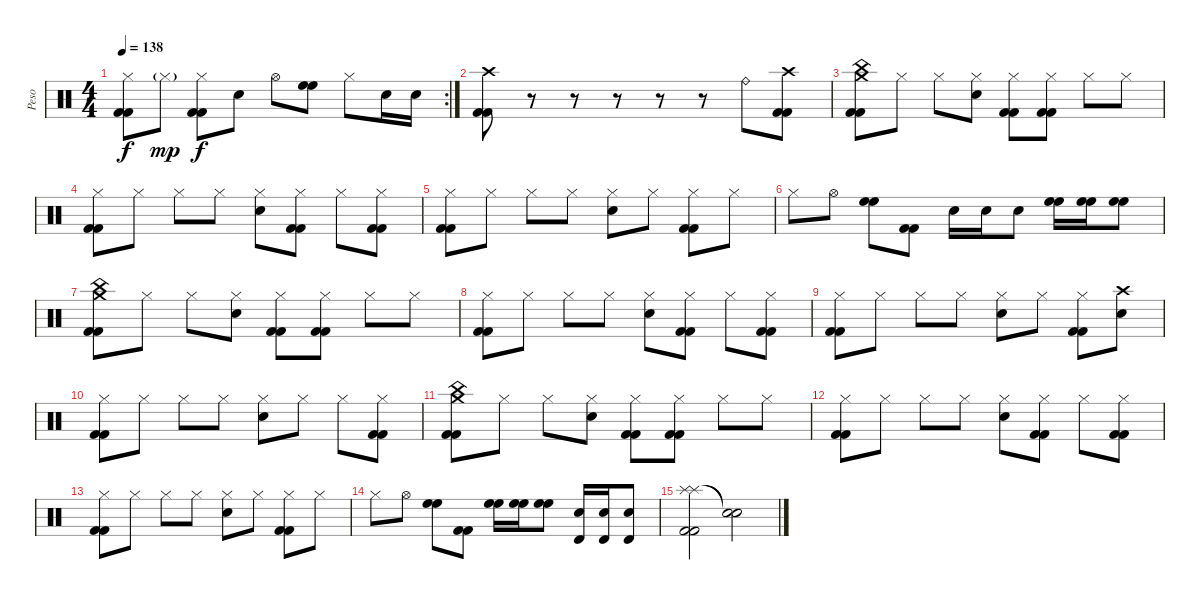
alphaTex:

\track ("Peso" "Peso") {instrument percussion}
\staff {score}
\articulation defaults
\rc 2
\ts (4 4)
\tempo 138
\clef neutral
\ks c
("Hi-Hat (closed)" "Kick (hit) 2" "Kick (hit) 2").8{dy f} "Hi-Hat (closed)"{g}.8{dy mp} ("Hi-Hat (closed)" "Kick (hit) 2" "Kick (hit) 2").8{dy f} "Electric Snare (hit)".8 "Hi-Hat (open)".8 ("High Floor Tom (hit)" "High Floor Tom (hit)").8{volume 16} "Hi-Hat (closed)".8{volume 15} "Electric Snare (hit)".16 "Electric Snare (hit)".16 |
("Crash high (hit)" "Kick (hit) 2" "Kick (hit) 2").8 r.8 r.8 r.8 r.8 r.8 "Ride (bell)".8 ("Crash high (hit)" "Kick (hit) 2" "Kick (hit) 2").8 |
("China (hit)" "Crash medium (hit)" "Kick (hit) 2" "Kick (hit) 2").8 "Hi-Hat (closed)".8 "Hi-Hat (closed)".8 ("Hi-Hat (closed)" "Electric Snare (hit)").8 ("Hi-Hat (closed)" "Kick (hit) 2" "Kick (hit) 2").8 ("Hi-Hat (closed)" "Kick (hit) 2" "Kick (hit) 2").8 "Hi-Hat (closed)".8 "Hi-Hat (closed)".8 |
("Hi-Hat (closed)" "Kick (hit) 2" "Kick (hit) 2").8 "Hi-Hat (closed)".8 "Hi-Hat (closed)".8 "Hi-Hat (closed)".8 ("Hi-Hat (closed)" "Electric Snare (hit)").8 ("Hi-Hat (closed)" "Kick (hit) 2" "Kick (hit) 2").8 "Hi-Hat (closed)".8 ("Hi-Hat (closed)" "Kick (hit) 2" "Kick (hit) 2").8 |
("Hi-Hat (closed)" "Kick (hit) 2" "Kick (hit) 2").8 "Hi-Hat (closed)".8 "Hi-Hat (closed)".8 "Hi-Hat (closed)".8 ("Hi-Hat (closed)" "Electric Snare (hit)").8 "Hi-Hat (closed)".8 ("Hi-Hat (closed)" "Kick (hit) 2" "Kick (hit) 2").8 "Hi-Hat (closed)".8 |
"Hi-Hat (closed)".8 "Hi-Hat (open)".8 ("High Floor Tom (hit)" "High Floor Tom (hit)").8{volume 16} ("Kick (hit) 2" "Kick (hit) 2").8 "Electric Snare (hit)".16 "Electric Snare (hit)".16 "Electric Snare (hit)".8 ("High Floor Tom (hit)" "High Floor Tom (hit)").16{volume 16} ("High Floor Tom (hit)" "High Floor Tom (hit)").16 ("High Floor Tom (hit)" "High Floor Tom (hit)").8 |
("China (hit)" "Crash medium (hit)" "Kick (hit) 2" "Kick (hit) 2").8{volume 15} "Hi-Hat (closed)".8 "Hi-Hat (closed)".8 ("Hi-Hat (closed)" "Electric Snare (hit)").8 ("Hi-Hat (closed)" "Kick (hit) 2" "Kick (hit) 2").8 ("Hi-Hat (closed)" "Kick (hit) 2" "Kick (hit) 2").8 "Hi-Hat (closed)".8 "Hi-Hat (closed)".8 |
("Hi-Hat (closed)" "Kick (hit) 2" "Kick (hit) 2").8 "Hi-Hat (closed)".8 "Hi-Hat (closed)".8 "Hi-Hat (closed)".8 ("Hi-Hat (closed)" "Electric Snare (hit)").8 ("Hi-Hat (closed)" "Kick (hit) 2" "Kick (hit) 2").8 "Hi-Hat (closed)".8 ("Hi-Hat (closed)" "Kick (hit) 2" "Kick (hit) 2").8 |
("Hi-Hat (closed)" "Kick (hit) 2" "Kick (hit) 2").8 "Hi-Hat (closed)".8 "Hi-Hat (closed)".8 "Hi-Hat (closed)".8 ("Hi-Hat (closed)" "Electric Snare (hit)").8 "Hi-Hat (closed)".8 ("Hi-Hat (closed)" "Kick (hit) 2" "Kick (hit) 2").8 ("Crash high (hit)" "Electric Snare (hit)").8 |
("Hi-Hat (closed)" "Kick (hit) 2" "Kick (hit) 2").8 "Hi-Hat (closed)".8 "Hi-Hat (closed)".8 "Hi-Hat (closed)".8 ("Hi-Hat (closed)" "Electric Snare (hit)").8 "Hi-Hat (closed)".8 "Hi-Hat (closed)".8 ("Hi-Hat (closed)" "Kick (hit) 2" "Kick (hit) 2").8 |
("China (hit)" "Crash medium (hit)" "Kick (hit) 2" "Kick (hit) 2").8 "Hi-Hat (closed)".8 "Hi-Hat (closed)".8 ("Hi-Hat (closed)" "Electric Snare (hit)").8 ("Hi-Hat (closed)" "Kick (hit) 2" "Kick (hit) 2").8 ("Hi-Hat (closed)" "Kick (hit) 2" "Kick (hit) 2").8 "Hi-Hat (closed)".8 "Hi-Hat (closed)".8 |
("Hi-Hat (closed)" "Kick (hit) 2" "Kick (hit) 2").8 "Hi-Hat (closed)".8 "Hi-Hat (closed)".8 "Hi-Hat (closed)".8 ("Hi-Hat (closed)" "Electric Snare (hit)").8 ("Hi-Hat (closed)" "Kick (hit) 2" "Kick (hit) 2").8 "Hi-Hat (closed)".8 ("Hi-Hat (closed)" "Kick (hit) 2" "Kick (hit) 2").8 |
("Hi-Hat (closed)" "Kick (hit) 2" "Kick (hit) 2").8 "Hi-Hat (closed)".8 "Hi-Hat (closed)".8 "Hi-Hat (closed)".8 ("Hi-Hat (closed)" "Electric Snare (hit)").8 "Hi-Hat (closed)".8 ("Hi-Hat (closed)" "Kick (hit) 2" "Kick (hit) 2").8 "Hi-Hat (closed)".8 |
"Hi-Hat (closed)".8 "Hi-Hat (open)".8 ("High Floor Tom (hit)" "High Floor Tom (hit)").8{volume 16} ("Kick (hit) 2" "Kick (hit) 2").8 ("High Floor Tom (hit)" "High Floor Tom (hit)").16{volume 16} ("High Floor Tom (hit)" "High Floor Tom (hit)").16 ("High Floor Tom (hit)" "High Floor Tom (hit)").8 ("Timbale high (hit)" "Electric Snare (hit)").16{volume 14} ("Timbale high (hit)" "Electric Snare (hit)").16 ("Timbale high (hit)" "Electric Snare (hit)").8 |
("Splash (hit)" "Splash (hit)" "Kick (hit) 2" "Kick (hit) 2").2 ("Snare (hit)"{t} "Snare (hit)"{t}).2
